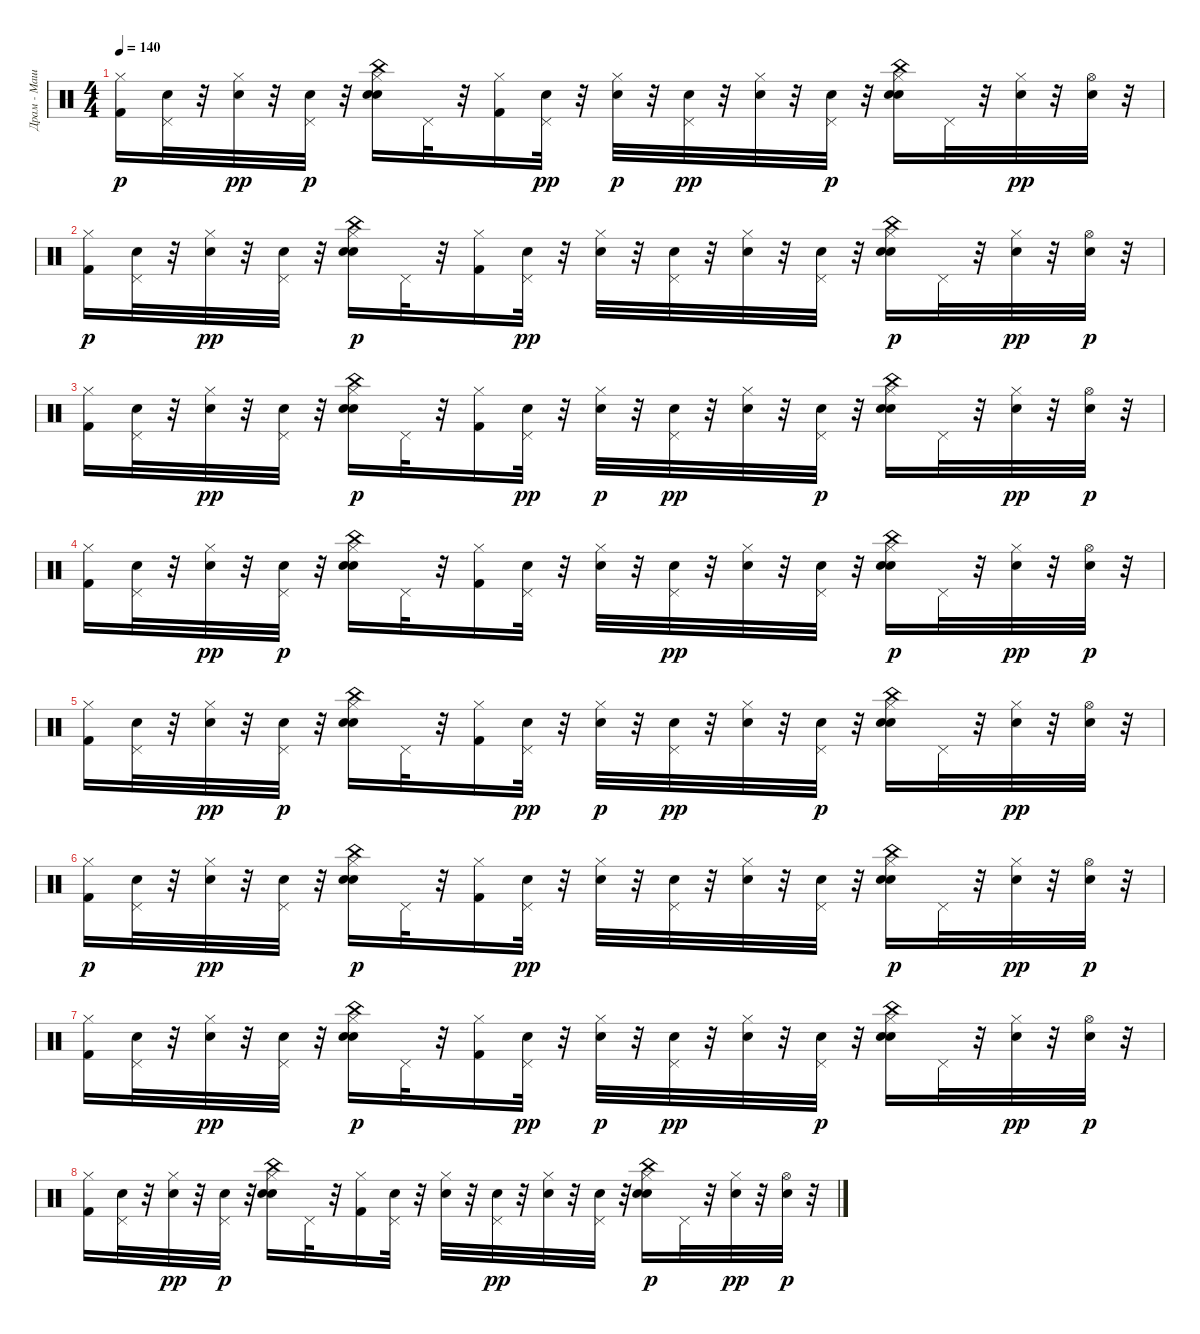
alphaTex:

\track ("Драм - Машина" "Драм - Маш") {instrument percussion}
\staff {score}
\articulation defaults
\ts (4 4)
\tempo 140
\clef neutral
\ks c
("Kick (hit) 2" "Hi-Hat (closed)").16{dy p} ("Snare (hit) 2" "Pedal Hi-Hat (hit)").32 r.32 ("Hi-Hat (closed)" "Snare (hit) 2").32{dy pp} r.32 ("Snare (hit) 2" "Pedal Hi-Hat (hit)").32{dy p} r.32 ("Electric Snare (hit)" "China (hit)" "Hand Clap (hit)" "Hi-Hat (closed)").16 "Pedal Hi-Hat (hit)".32 r.32 ("Hi-Hat (closed)" "Kick (hit) 2").16 ("Pedal Hi-Hat (hit)" "Snare (hit) 2").32{dy pp} r.32 ("Snare (hit) 2" "Hi-Hat (closed)").32{dy p} r.32 ("Pedal Hi-Hat (hit)" "Snare (hit) 2").32{dy pp} r.32 ("Hi-Hat (closed)" "Snare (hit) 2").32 r.32 ("Snare (hit) 2" "Pedal Hi-Hat (hit)").32{dy p} r.32 ("Electric Snare (hit)" "Hand Clap (hit)" "China (hit)" "Hi-Hat (closed)").16 "Pedal Hi-Hat (hit)".32 r.32 ("Hi-Hat (closed)" "Snare (hit) 2").32{dy pp} r.32 ("Hi-Hat (open)" "Snare (hit) 2").32 r.32 |
("Hi-Hat (closed)" "Kick (hit) 2").16{dy p} ("Snare (hit) 2" "Pedal Hi-Hat (hit)").32 r.32 ("Hi-Hat (closed)" "Snare (hit) 2").32{dy pp} r.32 ("Pedal Hi-Hat (hit)" "Snare (hit) 2").32 r.32 ("Hi-Hat (closed)" "Electric Snare (hit)" "Hand Clap (hit)" "China (hit)").16{dy p} "Pedal Hi-Hat (hit)".32 r.32 ("Hi-Hat (closed)" "Kick (hit) 2").16 ("Pedal Hi-Hat (hit)" "Snare (hit) 2").32{dy pp} r.32 ("Hi-Hat (closed)" "Snare (hit) 2").32 r.32 ("Pedal Hi-Hat (hit)" "Snare (hit) 2").32 r.32 ("Hi-Hat (closed)" "Snare (hit) 2").32 r.32 ("Pedal Hi-Hat (hit)" "Snare (hit) 2").32 r.32 ("Hi-Hat (closed)" "Electric Snare (hit)" "Hand Clap (hit)" "China (hit)").16{dy p} "Pedal Hi-Hat (hit)".32 r.32 ("Hi-Hat (closed)" "Snare (hit) 2").32{dy pp} r.32 ("Snare (hit) 2" "Hi-Hat (open)").32{dy p} r.32 |
("Kick (hit) 2" "Hi-Hat (closed)").16 ("Snare (hit) 2" "Pedal Hi-Hat (hit)").32 r.32 ("Hi-Hat (closed)" "Snare (hit) 2").32{dy pp} r.32 ("Pedal Hi-Hat (hit)" "Snare (hit) 2").32 r.32 ("Hi-Hat (closed)" "Electric Snare (hit)" "Hand Clap (hit)" "China (hit)").16{dy p} "Pedal Hi-Hat (hit)".32 r.32 ("Hi-Hat (closed)" "Kick (hit) 2").16 ("Pedal Hi-Hat (hit)" "Snare (hit) 2").32{dy pp} r.32 ("Snare (hit) 2" "Hi-Hat (closed)").32{dy p} r.32 ("Pedal Hi-Hat (hit)" "Snare (hit) 2").32{dy pp} r.32 ("Hi-Hat (closed)" "Snare (hit) 2").32 r.32 ("Snare (hit) 2" "Pedal Hi-Hat (hit)").32{dy p} r.32 ("Electric Snare (hit)" "China (hit)" "Hand Clap (hit)" "Hi-Hat (closed)").16 "Pedal Hi-Hat (hit)".32 r.32 ("Hi-Hat (closed)" "Snare (hit) 2").32{dy pp} r.32 ("Snare (hit) 2" "Hi-Hat (open)").32{dy p} r.32 |
("Kick (hit) 2" "Hi-Hat (closed)").16 ("Snare (hit) 2" "Pedal Hi-Hat (hit)").32 r.32 ("Hi-Hat (closed)" "Snare (hit) 2").32{dy pp} r.32 ("Snare (hit) 2" "Pedal Hi-Hat (hit)").32{dy p} r.32 ("Electric Snare (hit)" "Hand Clap (hit)" "China (hit)" "Hi-Hat (closed)").16 "Pedal Hi-Hat (hit)".32 r.32 ("Hi-Hat (closed)" "Kick (hit) 2").16 ("Snare (hit) 2" "Pedal Hi-Hat (hit)").32 r.32 ("Snare (hit) 2" "Hi-Hat (closed)").32 r.32 ("Pedal Hi-Hat (hit)" "Snare (hit) 2").32{dy pp} r.32 ("Hi-Hat (closed)" "Snare (hit) 2").32 r.32 ("Pedal Hi-Hat (hit)" "Snare (hit) 2").32 r.32 ("Hi-Hat (closed)" "Electric Snare (hit)" "Hand Clap (hit)" "China (hit)").16{dy p} "Pedal Hi-Hat (hit)".32 r.32 ("Hi-Hat (closed)" "Snare (hit) 2").32{dy pp} r.32 ("Snare (hit) 2" "Hi-Hat (open)").32{dy p} r.32 |
("Kick (hit) 2" "Hi-Hat (closed)").16 ("Snare (hit) 2" "Pedal Hi-Hat (hit)").32 r.32 ("Hi-Hat (closed)" "Snare (hit) 2").32{dy pp} r.32 ("Snare (hit) 2" "Pedal Hi-Hat (hit)").32{dy p} r.32 ("Electric Snare (hit)" "China (hit)" "Hand Clap (hit)" "Hi-Hat (closed)").16 "Pedal Hi-Hat (hit)".32 r.32 ("Hi-Hat (closed)" "Kick (hit) 2").16 ("Pedal Hi-Hat (hit)" "Snare (hit) 2").32{dy pp} r.32 ("Snare (hit) 2" "Hi-Hat (closed)").32{dy p} r.32 ("Pedal Hi-Hat (hit)" "Snare (hit) 2").32{dy pp} r.32 ("Hi-Hat (closed)" "Snare (hit) 2").32 r.32 ("Snare (hit) 2" "Pedal Hi-Hat (hit)").32{dy p} r.32 ("Electric Snare (hit)" "Hand Clap (hit)" "China (hit)" "Hi-Hat (closed)").16 "Pedal Hi-Hat (hit)".32 r.32 ("Hi-Hat (closed)" "Snare (hit) 2").32{dy pp} r.32 ("Hi-Hat (open)" "Snare (hit) 2").32 r.32 |
("Hi-Hat (closed)" "Kick (hit) 2").16{dy p} ("Snare (hit) 2" "Pedal Hi-Hat (hit)").32 r.32 ("Hi-Hat (closed)" "Snare (hit) 2").32{dy pp} r.32 ("Pedal Hi-Hat (hit)" "Snare (hit) 2").32 r.32 ("Hi-Hat (closed)" "Electric Snare (hit)" "Hand Clap (hit)" "China (hit)").16{dy p} "Pedal Hi-Hat (hit)".32 r.32 ("Hi-Hat (closed)" "Kick (hit) 2").16 ("Pedal Hi-Hat (hit)" "Snare (hit) 2").32{dy pp} r.32 ("Hi-Hat (closed)" "Snare (hit) 2").32 r.32 ("Pedal Hi-Hat (hit)" "Snare (hit) 2").32 r.32 ("Hi-Hat (closed)" "Snare (hit) 2").32 r.32 ("Pedal Hi-Hat (hit)" "Snare (hit) 2").32 r.32 ("Hi-Hat (closed)" "Electric Snare (hit)" "Hand Clap (hit)" "China (hit)").16{dy p} "Pedal Hi-Hat (hit)".32 r.32 ("Hi-Hat (closed)" "Snare (hit) 2").32{dy pp} r.32 ("Snare (hit) 2" "Hi-Hat (open)").32{dy p} r.32 |
("Kick (hit) 2" "Hi-Hat (closed)").16 ("Snare (hit) 2" "Pedal Hi-Hat (hit)").32 r.32 ("Hi-Hat (closed)" "Snare (hit) 2").32{dy pp} r.32 ("Pedal Hi-Hat (hit)" "Snare (hit) 2").32 r.32 ("Hi-Hat (closed)" "Electric Snare (hit)" "Hand Clap (hit)" "China (hit)").16{dy p} "Pedal Hi-Hat (hit)".32 r.32 ("Hi-Hat (closed)" "Kick (hit) 2").16 ("Pedal Hi-Hat (hit)" "Snare (hit) 2").32{dy pp} r.32 ("Snare (hit) 2" "Hi-Hat (closed)").32{dy p} r.32 ("Pedal Hi-Hat (hit)" "Snare (hit) 2").32{dy pp} r.32 ("Hi-Hat (closed)" "Snare (hit) 2").32 r.32 ("Snare (hit) 2" "Pedal Hi-Hat (hit)").32{dy p} r.32 ("Electric Snare (hit)" "China (hit)" "Hand Clap (hit)" "Hi-Hat (closed)").16 "Pedal Hi-Hat (hit)".32 r.32 ("Hi-Hat (closed)" "Snare (hit) 2").32{dy pp} r.32 ("Snare (hit) 2" "Hi-Hat (open)").32{dy p} r.32 |
("Kick (hit) 2" "Hi-Hat (closed)").16 ("Snare (hit) 2" "Pedal Hi-Hat (hit)").32 r.32 ("Hi-Hat (closed)" "Snare (hit) 2").32{dy pp} r.32 ("Snare (hit) 2" "Pedal Hi-Hat (hit)").32{dy p} r.32 ("Electric Snare (hit)" "Hand Clap (hit)" "China (hit)" "Hi-Hat (closed)").16 "Pedal Hi-Hat (hit)".32 r.32 ("Hi-Hat (closed)" "Kick (hit) 2").16 ("Snare (hit) 2" "Pedal Hi-Hat (hit)").32 r.32 ("Snare (hit) 2" "Hi-Hat (closed)").32 r.32 ("Pedal Hi-Hat (hit)" "Snare (hit) 2").32{dy pp} r.32 ("Hi-Hat (closed)" "Snare (hit) 2").32 r.32 ("Pedal Hi-Hat (hit)" "Snare (hit) 2").32 r.32 ("Hi-Hat (closed)" "Electric Snare (hit)" "Hand Clap (hit)" "China (hit)").16{dy p} "Pedal Hi-Hat (hit)".32 r.32 ("Hi-Hat (closed)" "Snare (hit) 2").32{dy pp} r.32 ("Snare (hit) 2" "Hi-Hat (open)").32{dy p} r.32
